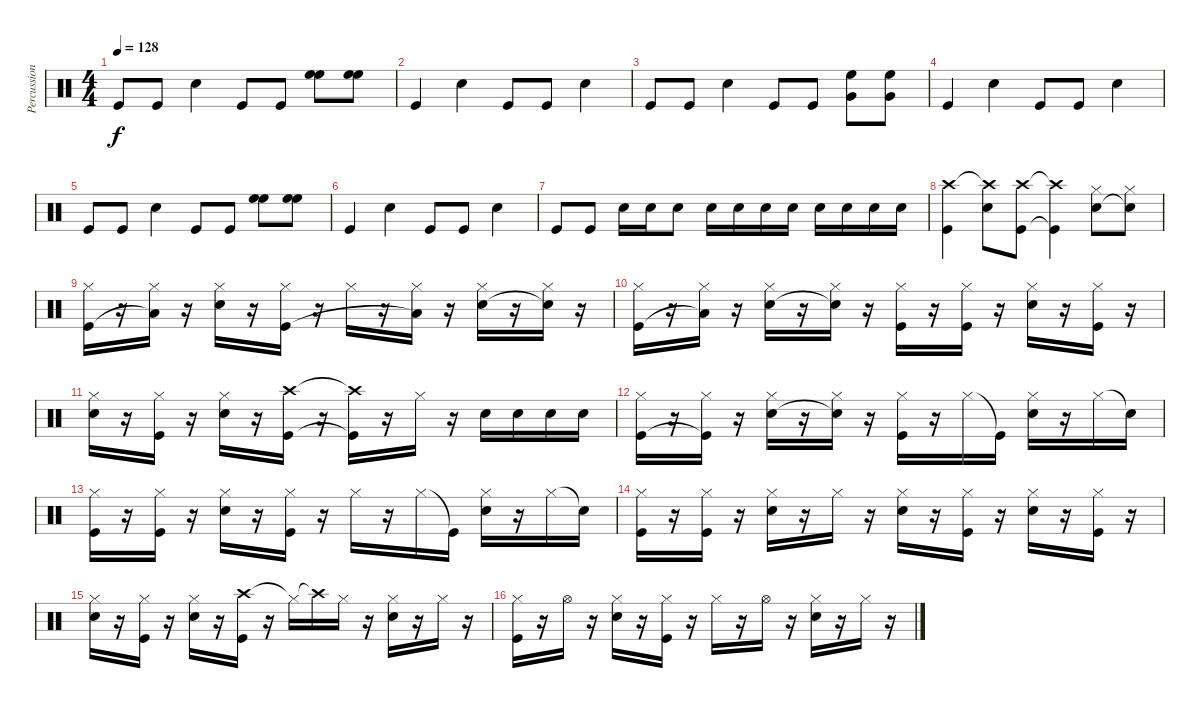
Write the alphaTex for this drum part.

\track ("Percussion" "Percussion") {instrument percussion}
\staff {score}
\articulation defaults
\ts (4 4)
\tempo 128
\clef neutral
\ks c "Kick (hit)".8{dy f} "Kick (hit)".8 "Snare (hit) 2".4 "Kick (hit)".8 "Kick (hit)".8
("High Floor Tom (hit)" "High Floor Tom (hit)").8 ("High Floor Tom (hit)" "High Floor Tom (hit)").8 |
"Kick (hit)".4 "Snare (hit) 2".4 "Kick (hit)".8 "Kick (hit)".8 "Snare (hit) 2".4 |
"Kick (hit)".8 "Kick (hit)".8 "Snare (hit) 2".4 "Kick (hit)".8 "Kick (hit)".8 ("Very Low Tom (hit)" "High Floor Tom (hit)").8 ("Very Low Tom (hit)" "High Floor Tom (hit)").8 |
"Kick (hit)".4 "Snare (hit) 2".4 "Kick (hit)".8 "Kick (hit)".8 "Snare (hit) 2".4 |
"Kick (hit)".8 "Kick (hit)".8 "Snare (hit) 2".4 "Kick (hit)".8 "Kick (hit)".8 ("High Floor Tom (hit)" "High Floor Tom (hit)").8 ("High Floor Tom (hit)" "High Floor Tom (hit)").8 |
"Kick (hit)".4 "Snare (hit) 2".4 "Kick (hit)".8 "Kick (hit)".8 "Snare (hit) 2".4 |
"Kick (hit)".8 "Kick (hit)".8 "Snare (hit) 2".16 "Snare (hit) 2".16 "Snare (hit) 2".8 "Snare (hit) 2".16 "Snare (hit) 2".16 "Snare (hit) 2".16 "Snare (hit) 2".16 "Snare (hit) 2".16 "Snare (hit) 2".16 "Snare (hit) 2".16 "Snare (hit) 2".16 |
("Crash high (hit)" "Kick (hit)").4 ("Crash high (hit)"{t} "Snare (hit) 2").8 ("Crash high (hit)" "Kick (hit)").8 ("Crash high (hit)"{t} "Kick (hit)"{t}).4 ("Hi-Hat (closed)" "Snare (hit) 2").8 ("Hi-Hat (closed)" "Snare (hit) 2"{t}).8 |
("Hi-Hat (closed)" "Kick (hit)").16 r.16 ("Hi-Hat (closed)" "Low Floor Tom (hit)"{t}).16 r.16 ("Hi-Hat (closed)" "Snare (hit) 2").16 r.16 ("Hi-Hat (closed)" "Kick (hit)").16 r.16 "Hi-Hat (closed)".16 r.16 ("Hi-Hat (closed)" "Low Floor Tom (hit)"{t}).16 r.16 ("Hi-Hat (closed)" "Snare (hit) 2").16 r.16 ("Hi-Hat (closed)" "Electric Snare (hit)"{t}).16 r.16 |
("Hi-Hat (closed)" "Kick (hit)").16 r.16 ("Hi-Hat (closed)" "Low Floor Tom (hit)"{t}).16 r.16 ("Hi-Hat (closed)" "Snare (hit) 2").16 r.16 ("Hi-Hat (closed)" "Snare (hit) 2"{t}).16 r.16 ("Hi-Hat (closed)" "Kick (hit)").16 r.16 ("Hi-Hat (closed)" "Kick (hit)").16 r.16 ("Hi-Hat (closed)" "Snare (hit) 2").16 r.16 ("Hi-Hat (closed)" "Kick (hit)").16 r.16 |
("Hi-Hat (closed)" "Snare (hit) 2").16 r.16 ("Hi-Hat (closed)" "Kick (hit)").16 r.16 ("Hi-Hat (closed)" "Snare (hit) 2").16 r.16 ("Crash high (hit)" "Kick (hit)").16 r.16 ("Crash high (hit)"{t} "Kick (hit)"{t}).16 r.16 "Hi-Hat (closed)".16 r.16 "Snare (hit) 2".16 "Snare (hit) 2".16 "Snare (hit) 2".16 "Snare (hit) 2".16 |
("Hi-Hat (closed)" "Kick (hit)").16 r.16 ("Hi-Hat (closed)" "Kick (hit)"{t}).16 r.16 ("Hi-Hat (closed)" "Snare (hit) 2").16 r.16 ("Hi-Hat (closed)" "Snare (hit) 2"{t}).16 r.16 ("Hi-Hat (closed)" "Kick (hit)").16 r.16 "Hi-Hat (closed)".16 "Kick (hit)"{t}.16 ("Hi-Hat (closed)" "Snare (hit) 2").16 r.16 "Hi-Hat (closed)".16 "Snare (hit) 2"{t}.16 |
("Hi-Hat (closed)" "Kick (hit)").16 r.16 ("Hi-Hat (closed)" "Kick (hit)").16 r.16 ("Hi-Hat (closed)" "Snare (hit) 2").16 r.16 ("Hi-Hat (closed)" "Kick (hit)").16 r.16 "Hi-Hat (closed)".16 r.16 "Hi-Hat (closed)".16 "Kick (hit)"{t}.16 ("Hi-Hat (closed)" "Snare (hit) 2").16 r.16 "Hi-Hat (closed)".16 "Snare (hit) 2"{t}.16 |
("Hi-Hat (closed)" "Kick (hit)").16 r.16 ("Hi-Hat (closed)" "Kick (hit)").16 r.16 ("Hi-Hat (closed)" "Snare (hit) 2").16 r.16 "Hi-Hat (closed)".16 r.16 ("Hi-Hat (closed)" "Snare (hit) 2").16 r.16 ("Hi-Hat (closed)" "Kick (hit)").16 r.16 ("Hi-Hat (closed)" "Snare (hit) 2").16 r.16 ("Hi-Hat (closed)" "Kick (hit)").16 r.16 |
("Hi-Hat (closed)" "Snare (hit) 2").16 r.16 ("Hi-Hat (closed)" "Kick (hit)").16 r.16 ("Hi-Hat (closed)" "Snare (hit) 2").16 r.16 ("Crash high (hit)" "Kick (hit)").16 r.16 "Hi-Hat (closed)"{t}.16 "Crash high (hit)"{t}.16 "Hi-Hat (closed)".16 r.16 ("Hi-Hat (closed)" "Snare (hit) 2").16 r.16 "Hi-Hat (closed)".16 r.16 |
("Hi-Hat (closed)" "Kick (hit)").16 r.16 "Hi-Hat (open)".16 r.16 ("Hi-Hat (closed)" "Snare (hit) 2").16 r.16 ("Hi-Hat (closed)" "Kick (hit)").16 r.16 "Hi-Hat (closed)".16 r.16 "Hi-Hat (open)".16 r.16 ("Hi-Hat (closed)" "Snare (hit) 2").16 r.16 "Hi-Hat (closed)".16 r.16
